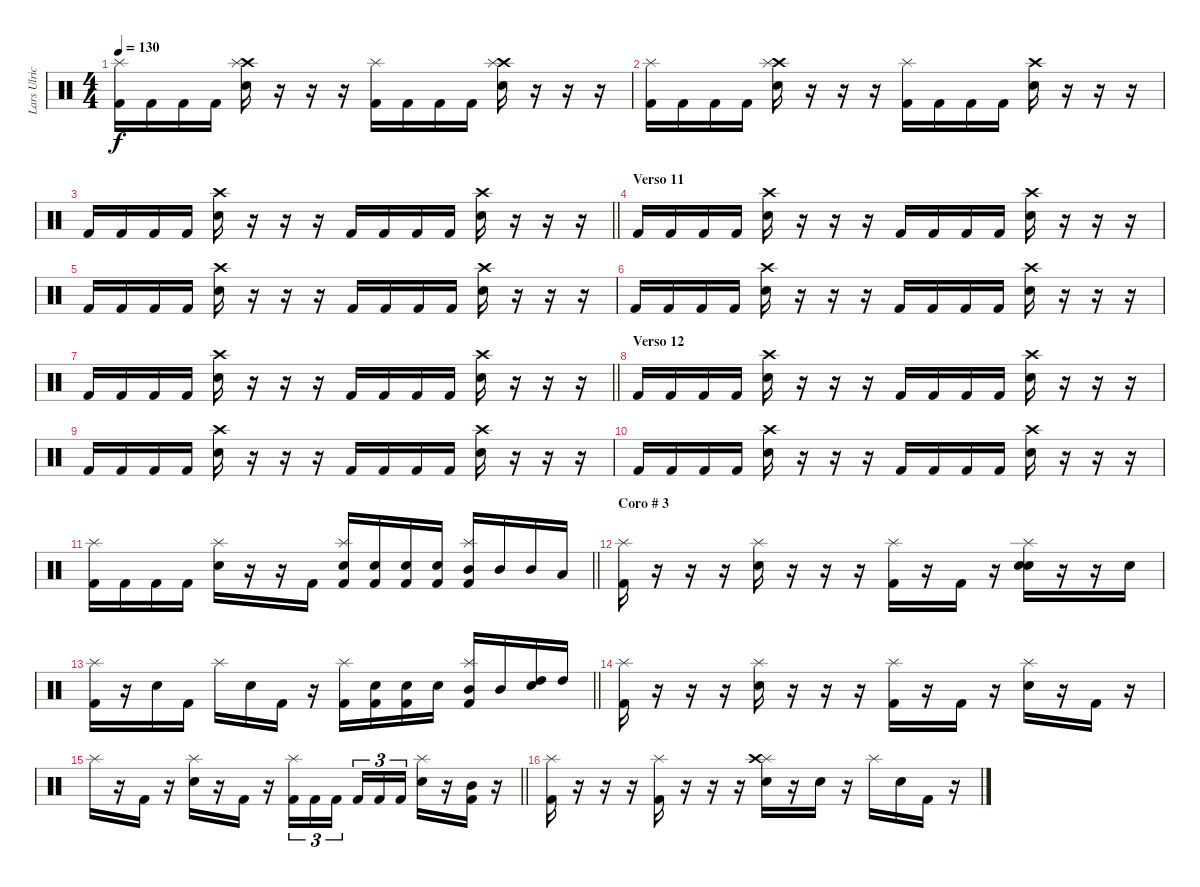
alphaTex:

\track ("Lars Ulrich" "Lars Ulric") {instrument percussion}
\staff {score}
\articulation defaults
\ts (4 4)
\tempo 130
\clef neutral
\ks c
("Kick (hit) 2" "Splash (hit)").16{dy f} "Kick (hit) 2".16 "Kick (hit) 2".16 "Kick (hit) 2".16 ("Electric Snare (hit)" "Crash high (hit)" "Splash (hit)").16 r.16 r.16 r.16 ("Kick (hit) 2" "Splash (hit)").16 "Kick (hit) 2".16 "Kick (hit) 2".16 "Kick (hit) 2".16 ("Electric Snare (hit)" "Crash high (hit)" "Splash (hit)").16 r.16 r.16 r.16 |
("Kick (hit) 2" "Splash (hit)").16 "Kick (hit) 2".16 "Kick (hit) 2".16 "Kick (hit) 2".16 ("Electric Snare (hit)" "Crash high (hit)" "Splash (hit)").16 r.16 r.16 r.16 ("Kick (hit) 2" "Splash (hit)").16 "Kick (hit) 2".16 "Kick (hit) 2".16 "Kick (hit) 2".16 ("Electric Snare (hit)" "Crash high (hit)").16 r.16 r.16 r.16 |
\barLineRight lightlight "Kick (hit) 2".16 "Kick (hit) 2".16 "Kick (hit) 2".16 "Kick (hit) 2".16
("Electric Snare (hit)" "Crash high (hit)").16 r.16 r.16 r.16 "Kick (hit) 2".16 "Kick (hit) 2".16 "Kick (hit) 2".16 "Kick (hit) 2".16 ("Electric Snare (hit)" "Crash high (hit)").16 r.16 r.16 r.16 |
\section ("" "Verso 11")
"Kick (hit) 2".16 "Kick (hit) 2".16 "Kick (hit) 2".16 "Kick (hit) 2".16 ("Electric Snare (hit)" "Crash high (hit)").16 r.16 r.16 r.16 "Kick (hit) 2".16 "Kick (hit) 2".16 "Kick (hit) 2".16 "Kick (hit) 2".16 ("Electric Snare (hit)" "Crash high (hit)").16 r.16 r.16 r.16 |
"Kick (hit) 2".16 "Kick (hit) 2".16 "Kick (hit) 2".16 "Kick (hit) 2".16 ("Electric Snare (hit)" "Crash high (hit)").16 r.16 r.16 r.16 "Kick (hit) 2".16 "Kick (hit) 2".16 "Kick (hit) 2".16 "Kick (hit) 2".16 ("Electric Snare (hit)" "Crash high (hit)").16 r.16 r.16 r.16 |
"Kick (hit) 2".16 "Kick (hit) 2".16 "Kick (hit) 2".16 "Kick (hit) 2".16 ("Electric Snare (hit)" "Crash high (hit)").16 r.16 r.16 r.16 "Kick (hit) 2".16 "Kick (hit) 2".16 "Kick (hit) 2".16 "Kick (hit) 2".16 ("Electric Snare (hit)" "Crash high (hit)").16 r.16 r.16 r.16 |
\barLineRight lightlight "Kick (hit) 2".16 "Kick (hit) 2".16 "Kick (hit) 2".16 "Kick (hit) 2".16
("Electric Snare (hit)" "Crash high (hit)").16 r.16 r.16 r.16 "Kick (hit) 2".16 "Kick (hit) 2".16 "Kick (hit) 2".16 "Kick (hit) 2".16 ("Electric Snare (hit)" "Crash high (hit)").16 r.16 r.16 r.16 |
\section ("" "Verso 12")
"Kick (hit) 2".16 "Kick (hit) 2".16 "Kick (hit) 2".16 "Kick (hit) 2".16 ("Electric Snare (hit)" "Crash high (hit)").16 r.16 r.16 r.16 "Kick (hit) 2".16 "Kick (hit) 2".16 "Kick (hit) 2".16 "Kick (hit) 2".16 ("Electric Snare (hit)" "Crash high (hit)").16 r.16 r.16 r.16 |
"Kick (hit) 2".16 "Kick (hit) 2".16 "Kick (hit) 2".16 "Kick (hit) 2".16 ("Electric Snare (hit)" "Crash high (hit)").16 r.16 r.16 r.16 "Kick (hit) 2".16 "Kick (hit) 2".16 "Kick (hit) 2".16 "Kick (hit) 2".16 ("Electric Snare (hit)" "Crash high (hit)").16 r.16 r.16 r.16 |
"Kick (hit) 2".16 "Kick (hit) 2".16 "Kick (hit) 2".16 "Kick (hit) 2".16 ("Electric Snare (hit)" "Crash high (hit)").16 r.16 r.16 r.16 "Kick (hit) 2".16 "Kick (hit) 2".16 "Kick (hit) 2".16 "Kick (hit) 2".16 ("Electric Snare (hit)" "Crash high (hit)").16 r.16 r.16 r.16 |
\barLineRight lightlight
("Kick (hit) 2" "Splash (hit)").16 "Kick (hit) 2".16 "Kick (hit) 2".16 "Kick (hit) 2".16 ("Electric Snare (hit)" "Splash (hit)").16 r.16 r.16 "Kick (hit) 2".16 ("Kick (hit) 2" "Splash (hit)" "Electric Snare (hit)").16 ("Kick (hit) 2" "Electric Snare (hit)").16 ("Kick (hit) 2" "Electric Snare (hit)").16 ("Kick (hit) 2" "Electric Snare (hit)").16 ("Kick (hit) 2" "Splash (hit)" "Mid Tom (hit)").16 "Mid Tom (hit)".16 "Mid Tom (hit)".16 "Low Tom (hit)".16 |
\section ("" "Coro # 3")
("Kick (hit) 2" "Splash (hit)").16 r.16 r.16 r.16 ("Electric Snare (hit)" "Splash (hit)").16 r.16 r.16 r.16 ("Kick (hit) 2" "Splash (hit)").16 r.16 "Kick (hit) 2".16 r.16 ("Electric Snare (hit)" "Splash (hit)" "Electric Snare (hit)").16 r.16 r.16 "Electric Snare (hit)".16 |
\barLineRight lightlight
("Kick (hit) 2" "Splash (hit)").16 r.16 "Electric Snare (hit)".16 "Kick (hit) 2".16 "Splash (hit)".16 "Electric Snare (hit)".16 "Kick (hit) 2".16 r.16 ("Kick (hit) 2" "Splash (hit)").16 ("Kick (hit) 2" "Electric Snare (hit)").16 ("Kick (hit) 2" "Electric Snare (hit)").16 "Electric Snare (hit)".16 ("Kick (hit) 2" "Splash (hit)" "Mid Tom (hit)").16 "Mid Tom (hit)".16 ("Electric Snare (hit)" "High Tom (hit)").16 "High Tom (hit)".16 |
("Splash (hit)" "Kick (hit) 2").16 r.16 r.16 r.16 ("Electric Snare (hit)" "Splash (hit)").16 r.16 r.16 r.16 ("Kick (hit) 2" "Splash (hit)").16 r.16 "Kick (hit) 2".16 r.16 ("Electric Snare (hit)" "Splash (hit)").16 r.16 "Kick (hit) 2".16 r.16 |
\barLineRight lightlight "Splash (hit)".16
r.16 "Kick (hit) 2".16 r.16 ("Electric Snare (hit)" "Splash (hit)").16 r.16 "Kick (hit) 2".16 r.16 ("Kick (hit) 2" "Splash (hit)").16{tu (3 2)} "Kick (hit) 2".16{tu (3 2)} "Kick (hit) 2".16{tu (3 2) beam splitsecondary} "Kick (hit) 2".16{tu (3 2)} "Kick (hit) 2".16{tu (3 2)} "Kick (hit) 2".16{tu (3 2)} ("Electric Snare (hit)" "Splash (hit)").16 r.16 ("Kick (hit) 2" "Mid Tom (hit)").16 r.16 |
("Kick (hit) 2" "Splash (hit)").16 r.16 r.16 r.16 ("Kick (hit) 2" "Splash (hit)").16 r.16 r.16 r.16 ("Electric Snare (hit)" "Splash (hit)" "Crash high (hit)").16 r.16 "Electric Snare (hit)".16 r.16 "Splash (hit)".16 "Electric Snare (hit)".16 "Kick (hit) 2".16 r.16
